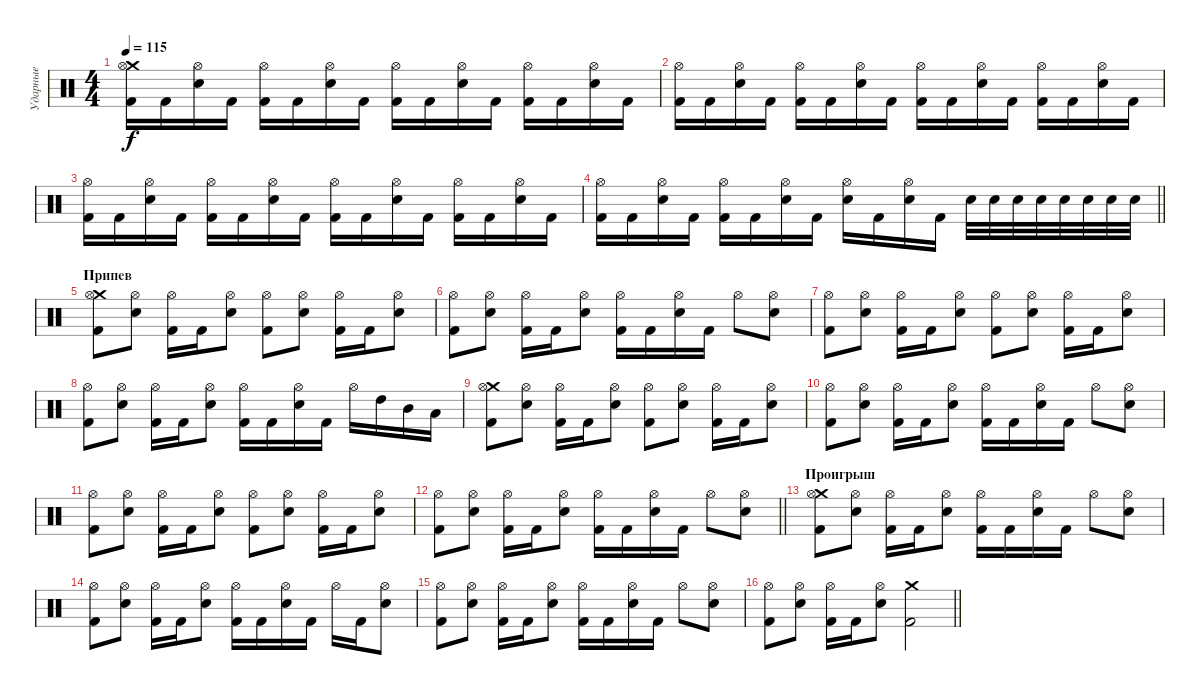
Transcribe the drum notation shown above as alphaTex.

\track ("Ударные" "Ударные") {instrument percussion}
\staff {score}
\articulation defaults
\ts (4 4)
\tempo 115
\clef neutral
\ks aminor
("Crash medium (hit)" "Kick (hit) 2" "Hi-Hat (open)").16{dy f} "Kick (hit) 2".16 ("Electric Snare (hit)" "Hi-Hat (open)").16 "Kick (hit) 2".16 ("Kick (hit) 2" "Hi-Hat (open)").16 "Kick (hit) 2".16 ("Electric Snare (hit)" "Hi-Hat (open)").16 "Kick (hit) 2".16 ("Kick (hit) 2" "Hi-Hat (open)").16 "Kick (hit) 2".16 ("Electric Snare (hit)" "Hi-Hat (open)").16 "Kick (hit) 2".16 ("Kick (hit) 2" "Hi-Hat (open)").16 "Kick (hit) 2".16 ("Electric Snare (hit)" "Hi-Hat (open)").16 "Kick (hit) 2".16 |
("Kick (hit) 2" "Hi-Hat (open)").16 "Kick (hit) 2".16 ("Electric Snare (hit)" "Hi-Hat (open)").16 "Kick (hit) 2".16 ("Kick (hit) 2" "Hi-Hat (open)").16 "Kick (hit) 2".16 ("Electric Snare (hit)" "Hi-Hat (open)").16 "Kick (hit) 2".16 ("Kick (hit) 2" "Hi-Hat (open)").16 "Kick (hit) 2".16 ("Electric Snare (hit)" "Hi-Hat (open)").16 "Kick (hit) 2".16 ("Kick (hit) 2" "Hi-Hat (open)").16 "Kick (hit) 2".16 ("Electric Snare (hit)" "Hi-Hat (open)").16 "Kick (hit) 2".16 |
("Kick (hit) 2" "Hi-Hat (open)").16 "Kick (hit) 2".16 ("Electric Snare (hit)" "Hi-Hat (open)").16 "Kick (hit) 2".16 ("Kick (hit) 2" "Hi-Hat (open)").16 "Kick (hit) 2".16 ("Electric Snare (hit)" "Hi-Hat (open)").16 "Kick (hit) 2".16 ("Kick (hit) 2" "Hi-Hat (open)").16 "Kick (hit) 2".16 ("Electric Snare (hit)" "Hi-Hat (open)").16 "Kick (hit) 2".16 ("Kick (hit) 2" "Hi-Hat (open)").16 "Kick (hit) 2".16 ("Electric Snare (hit)" "Hi-Hat (open)").16 "Kick (hit) 2".16 |
\barLineRight lightlight
("Kick (hit) 2" "Hi-Hat (open)").16 "Kick (hit) 2".16 ("Electric Snare (hit)" "Hi-Hat (open)").16 "Kick (hit) 2".16 ("Kick (hit) 2" "Hi-Hat (open)").16 "Kick (hit) 2".16 ("Electric Snare (hit)" "Hi-Hat (open)").16 "Kick (hit) 2".16 ("Electric Snare (hit)" "Hi-Hat (open)").16 "Kick (hit) 2".16 ("Electric Snare (hit)" "Hi-Hat (open)").16 "Kick (hit) 2".16 "Electric Snare (hit)".32 "Electric Snare (hit)".32 "Electric Snare (hit)".32 "Electric Snare (hit)".32 "Electric Snare (hit)".32 "Electric Snare (hit)".32 "Electric Snare (hit)".32 "Electric Snare (hit)".32 |
\section ("" "Припев")
("Crash medium (hit)" "Kick (hit) 2" "Hi-Hat (open)").8 ("Electric Snare (hit)" "Hi-Hat (open)").8 ("Kick (hit) 2" "Hi-Hat (open)").16 "Kick (hit) 2".16 ("Electric Snare (hit)" "Hi-Hat (open)").8 ("Kick (hit) 2" "Hi-Hat (open)").8 ("Electric Snare (hit)" "Hi-Hat (open)").8 ("Kick (hit) 2" "Hi-Hat (open)").16 "Kick (hit) 2".16 ("Electric Snare (hit)" "Hi-Hat (open)").8 |
("Kick (hit) 2" "Hi-Hat (open)").8 ("Electric Snare (hit)" "Hi-Hat (open)").8 ("Kick (hit) 2" "Hi-Hat (open)").16 "Kick (hit) 2".16 ("Electric Snare (hit)" "Hi-Hat (open)").8 ("Kick (hit) 2" "Hi-Hat (open)").16 "Kick (hit) 2".16 ("Electric Snare (hit)" "Hi-Hat (open)").16 "Kick (hit) 2".16 "Hi-Hat (open)".8 ("Electric Snare (hit)" "Hi-Hat (open)").8 |
("Kick (hit) 2" "Hi-Hat (open)").8 ("Electric Snare (hit)" "Hi-Hat (open)").8 ("Kick (hit) 2" "Hi-Hat (open)").16 "Kick (hit) 2".16 ("Electric Snare (hit)" "Hi-Hat (open)").8 ("Kick (hit) 2" "Hi-Hat (open)").8 ("Electric Snare (hit)" "Hi-Hat (open)").8 ("Kick (hit) 2" "Hi-Hat (open)").16 "Kick (hit) 2".16 ("Electric Snare (hit)" "Hi-Hat (open)").8 |
("Kick (hit) 2" "Hi-Hat (open)").8 ("Electric Snare (hit)" "Hi-Hat (open)").8 ("Kick (hit) 2" "Hi-Hat (open)").16 "Kick (hit) 2".16 ("Electric Snare (hit)" "Hi-Hat (open)").8 ("Kick (hit) 2" "Hi-Hat (open)").16 "Kick (hit) 2".16 ("Electric Snare (hit)" "Hi-Hat (open)").16 "Kick (hit) 2".16 "Hi-Hat (open)".16 "High Tom (hit)".16 "Mid Tom (hit)".16 "Low Tom (hit)".16 |
("Crash medium (hit)" "Kick (hit) 2" "Hi-Hat (open)").8 ("Electric Snare (hit)" "Hi-Hat (open)").8 ("Kick (hit) 2" "Hi-Hat (open)").16 "Kick (hit) 2".16 ("Electric Snare (hit)" "Hi-Hat (open)").8 ("Kick (hit) 2" "Hi-Hat (open)").8 ("Electric Snare (hit)" "Hi-Hat (open)").8 ("Kick (hit) 2" "Hi-Hat (open)").16 "Kick (hit) 2".16 ("Electric Snare (hit)" "Hi-Hat (open)").8 |
("Kick (hit) 2" "Hi-Hat (open)").8 ("Electric Snare (hit)" "Hi-Hat (open)").8 ("Kick (hit) 2" "Hi-Hat (open)").16 "Kick (hit) 2".16 ("Electric Snare (hit)" "Hi-Hat (open)").8 ("Kick (hit) 2" "Hi-Hat (open)").16 "Kick (hit) 2".16 ("Electric Snare (hit)" "Hi-Hat (open)").16 "Kick (hit) 2".16 "Hi-Hat (open)".8 ("Electric Snare (hit)" "Hi-Hat (open)").8 |
("Kick (hit) 2" "Hi-Hat (open)").8 ("Electric Snare (hit)" "Hi-Hat (open)").8 ("Kick (hit) 2" "Hi-Hat (open)").16 "Kick (hit) 2".16 ("Electric Snare (hit)" "Hi-Hat (open)").8 ("Kick (hit) 2" "Hi-Hat (open)").8 ("Electric Snare (hit)" "Hi-Hat (open)").8 ("Kick (hit) 2" "Hi-Hat (open)").16 "Kick (hit) 2".16 ("Electric Snare (hit)" "Hi-Hat (open)").8 |
\barLineRight lightlight
("Kick (hit) 2" "Hi-Hat (open)").8 ("Electric Snare (hit)" "Hi-Hat (open)").8 ("Kick (hit) 2" "Hi-Hat (open)").16 "Kick (hit) 2".16 ("Electric Snare (hit)" "Hi-Hat (open)").8 ("Kick (hit) 2" "Hi-Hat (open)").16 "Kick (hit) 2".16 ("Electric Snare (hit)" "Hi-Hat (open)").16 "Kick (hit) 2".16 "Hi-Hat (open)".8 ("Electric Snare (hit)" "Hi-Hat (open)").8 |
\section ("" "Проигрыш")
("Crash medium (hit)" "Kick (hit) 2" "Hi-Hat (open)").8 ("Electric Snare (hit)" "Hi-Hat (open)").8 ("Kick (hit) 2" "Hi-Hat (open)").16 "Kick (hit) 2".16 ("Electric Snare (hit)" "Hi-Hat (open)").8 ("Kick (hit) 2" "Hi-Hat (open)").16 "Kick (hit) 2".16 ("Electric Snare (hit)" "Hi-Hat (open)").16 "Kick (hit) 2".16 "Hi-Hat (open)".8 ("Electric Snare (hit)" "Hi-Hat (open)").8 |
("Kick (hit) 2" "Hi-Hat (open)").8 ("Electric Snare (hit)" "Hi-Hat (open)").8 ("Kick (hit) 2" "Hi-Hat (open)").16 "Kick (hit) 2".16 ("Electric Snare (hit)" "Hi-Hat (open)").8 ("Kick (hit) 2" "Hi-Hat (open)").16 "Kick (hit) 2".16 ("Electric Snare (hit)" "Hi-Hat (open)").16 "Kick (hit) 2".16 "Hi-Hat (open)".16 "Kick (hit) 2".16 ("Electric Snare (hit)" "Hi-Hat (open)").8 |
("Kick (hit) 2" "Hi-Hat (open)").8 ("Electric Snare (hit)" "Hi-Hat (open)").8 ("Kick (hit) 2" "Hi-Hat (open)").16 "Kick (hit) 2".16 ("Electric Snare (hit)" "Hi-Hat (open)").8 ("Kick (hit) 2" "Hi-Hat (open)").16 "Kick (hit) 2".16 ("Electric Snare (hit)" "Hi-Hat (open)").16 "Kick (hit) 2".16 "Hi-Hat (open)".8 ("Electric Snare (hit)" "Hi-Hat (open)").8 |
\barLineRight lightlight
("Kick (hit) 2" "Hi-Hat (open)").8 ("Electric Snare (hit)" "Hi-Hat (open)").8 ("Kick (hit) 2" "Hi-Hat (open)").16 "Kick (hit) 2".16 ("Electric Snare (hit)" "Hi-Hat (open)").8 ("Crash medium (hit)" "Kick (hit) 2").2
